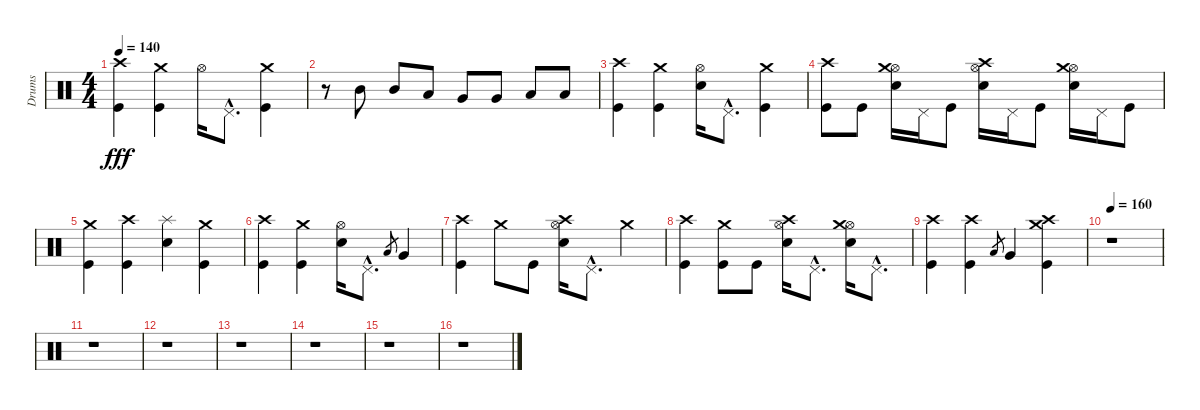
\track ("Drums" "Drums") {instrument percussion}
\staff {score}
\articulation defaults
\ts (4 4)
\tempo 140
\clef neutral
\ks c
("Crash high (hit)" "Kick (hit)").4{dy fff} ("Crash medium (hit)" "Kick (hit)").4 "Hi-Hat (open)".16 "Pedal Hi-Hat (hit)"{hac}.8{d} ("Crash medium (hit)" "Kick (hit)").4 |
r.8 "Mid Tom (hit)".8 "Mid Tom (hit)".8 "Low Tom (hit)".8 "Very Low Tom (hit)".8 "Very Low Tom (hit)".8 "Low Floor Tom (hit)".8 "Low Floor Tom (hit)".8 |
("Crash high (hit)" "Kick (hit)").4 ("Crash medium (hit)" "Kick (hit)").4 ("Hi-Hat (open)" "Electric Snare (hit)").16 "Pedal Hi-Hat (hit)"{hac}.8{d} ("Crash medium (hit)" "Kick (hit)").4 |
("Crash high (hit)" "Kick (hit)").8 "Kick (hit)".8 ("Hi-Hat (open)" "Crash medium (hit)" "Electric Snare (hit)").16 "Pedal Hi-Hat (hit)".16 "Kick (hit)".8 ("Hi-Hat (open)" "Crash high (hit)" "Electric Snare (hit)").16 "Pedal Hi-Hat (hit)".16 "Kick (hit)".8 ("Hi-Hat (open)" "Crash medium (hit)" "Electric Snare (hit)").16 "Pedal Hi-Hat (hit)".16 "Kick (hit)".8 |
("Crash medium (hit)" "Kick (hit)").4 ("Crash high (hit)" "Kick (hit)").4 ("Splash (hit)" "Electric Snare (hit)").4 ("Crash medium (hit)" "Kick (hit)").4 |
("Crash high (hit)" "Kick (hit)").4 ("Crash medium (hit)" "Kick (hit)").4 ("Hi-Hat (open)" "Electric Snare (hit)").16 "Pedal Hi-Hat (hit)"{hac}.8{d} "Low Tom (hit)".8{gr} "Very Low Tom (hit)".4 |
("Crash high (hit)" "Kick (hit)").4 "Crash medium (hit)".8 "Kick (hit)".8 ("Hi-Hat (open)" "Crash high (hit)" "Electric Snare (hit)").16 "Pedal Hi-Hat (hit)"{hac}.8{d} "Crash medium (hit)".4 |
("Crash high (hit)" "Kick (hit)").4 ("Crash medium (hit)" "Kick (hit)").8 "Kick (hit)".8 ("Hi-Hat (open)" "Crash high (hit)" "Electric Snare (hit)").16 "Pedal Hi-Hat (hit)"{hac}.8{d} ("Hi-Hat (open)" "Crash medium (hit)" "Electric Snare (hit)").16 "Pedal Hi-Hat (hit)"{hac}.8{d} |
("Crash high (hit)" "Kick (hit)").4 ("Crash high (hit)" "Kick (hit)").4 "Low Tom (hit)".8{gr} "Very Low Tom (hit)".4 ("Crash medium (hit)" "Crash high (hit)" "Kick (hit)").4 |
\tempo 160
r.1 |
r.1 |
r.1 |
r.1 |
r.1 |
r.1 |
r.1
